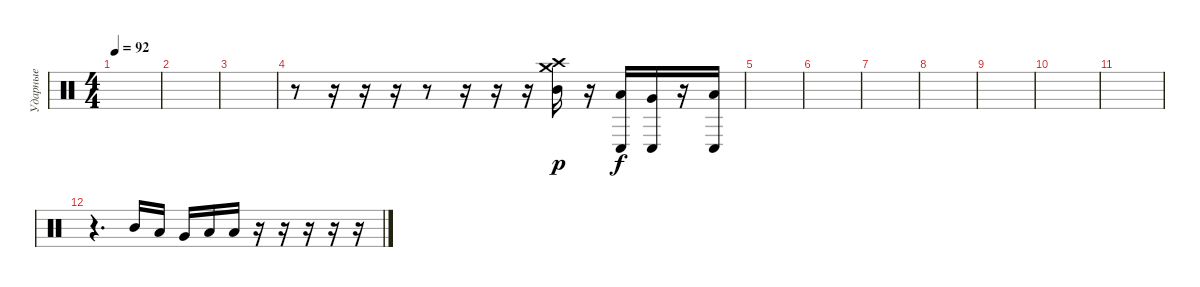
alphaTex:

\track ("Ударные" "Ударные") {instrument percussion}
\staff {score}
\articulation defaults
\ts (4 4)
\tempo 92
\clef neutral
\ks c
|
|
|
r.8 r.16 r.16 r.16 r.8 r.16 r.16 r.16 ("Mid Tom (hit)" "Crash high (hit)" "Crash medium (hit)").16{dy p} r.16 ("Conga low (hit)" "Low Tom (hit)").16{dy f} ("Conga low (hit)" "Very Low Tom (hit)").16 r.16 ("Conga low (hit)" "Low Floor Tom (hit)").16 |
|
|
|
|
|
|
|
r.4{d} "Mid Tom (hit)".16 "Low Tom (hit)".16 "Very Low Tom (hit)".16 "Low Tom (hit)".16 "Low Floor Tom (hit)".16 r.16 r.16 r.16 r.16 r.16
